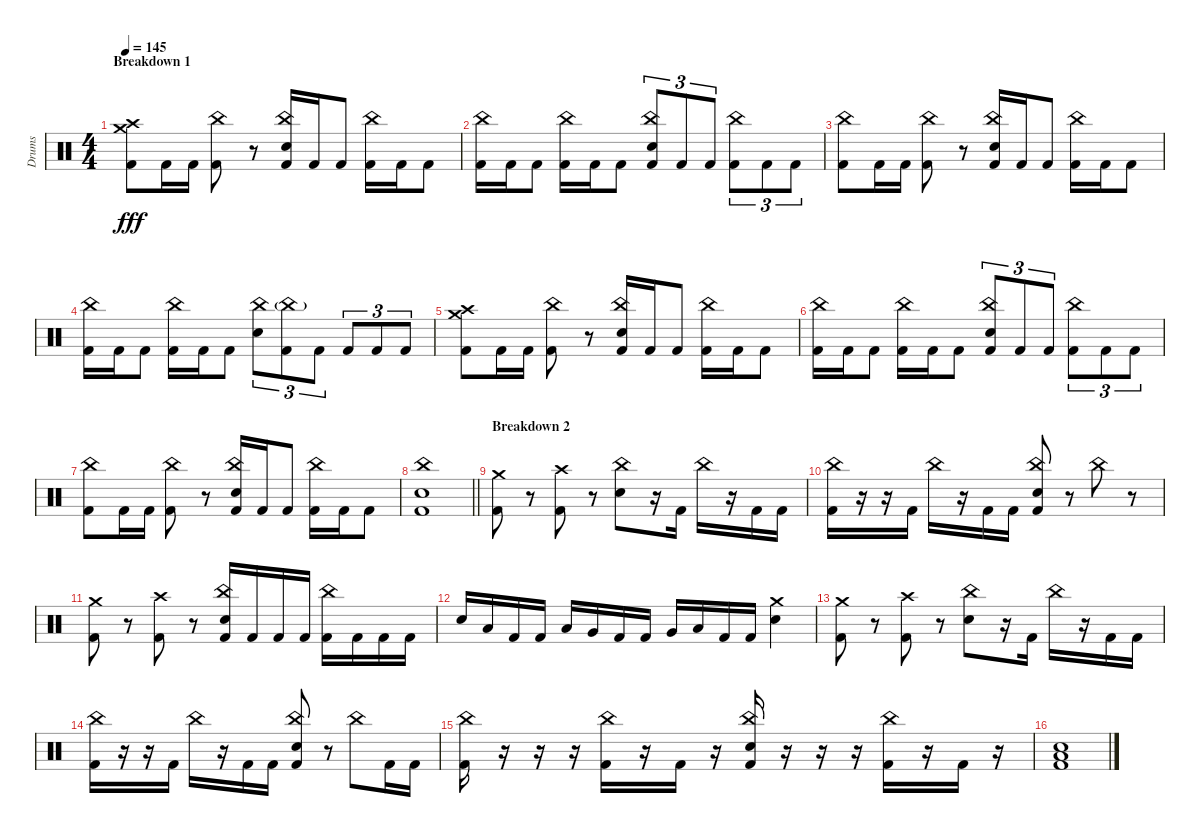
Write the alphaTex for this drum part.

\track ("Drums" "Drums") {instrument percussion}
\staff {score}
\articulation defaults
\ts (4 4)
\section ("" "Breakdown 1")
\tempo 145
\clef neutral
\ks c
("Crash medium (hit)" "Crash high (hit)" "Kick (hit) 2").8{dy fff} "Kick (hit) 2".16 "Kick (hit) 2".16 ("China (hit)" "Kick (hit) 2").8 r.8 ("China (hit)" "Electric Snare (hit)" "Kick (hit) 2").16 "Kick (hit) 2".16 "Kick (hit) 2".8 ("China (hit)" "Kick (hit) 2").16 "Kick (hit) 2".16 "Kick (hit) 2".8 |
("China (hit)" "Kick (hit) 2").16 "Kick (hit) 2".16 "Kick (hit) 2".8 ("China (hit)" "Kick (hit) 2").16 "Kick (hit) 2".16 "Kick (hit) 2".8 ("China (hit)" "Electric Snare (hit)" "Kick (hit) 2").8{tu (3 2)} "Kick (hit) 2".8{tu (3 2)} "Kick (hit) 2".8{tu (3 2)} ("China (hit)" "Kick (hit) 2").8{tu (3 2)} "Kick (hit) 2".8{tu (3 2)} "Kick (hit) 2".8{tu (3 2)} |
("China (hit)" "Kick (hit) 2").8 "Kick (hit) 2".16 "Kick (hit) 2".16 ("China (hit)" "Kick (hit) 2").8 r.8 ("China (hit)" "Electric Snare (hit)" "Kick (hit) 2").16 "Kick (hit) 2".16 "Kick (hit) 2".8 ("China (hit)" "Kick (hit) 2").16 "Kick (hit) 2".16 "Kick (hit) 2".8 |
("China (hit)" "Kick (hit) 2").16 "Kick (hit) 2".16 "Kick (hit) 2".8 ("China (hit)" "Kick (hit) 2").16 "Kick (hit) 2".16 "Kick (hit) 2".8 ("China (hit)" "Electric Snare (hit)").8{tu (3 2)} ("China (hit)"{g} "Kick (hit) 2").8{tu (3 2)} "Kick (hit) 2".8{tu (3 2)} "Kick (hit) 2".8{tu (3 2)} "Kick (hit) 2".8{tu (3 2)} "Kick (hit) 2".8{tu (3 2)} |
("Crash medium (hit)" "Crash high (hit)" "Kick (hit) 2").8 "Kick (hit) 2".16 "Kick (hit) 2".16 ("China (hit)" "Kick (hit) 2").8 r.8 ("China (hit)" "Electric Snare (hit)" "Kick (hit) 2").16 "Kick (hit) 2".16 "Kick (hit) 2".8 ("China (hit)" "Kick (hit) 2").16 "Kick (hit) 2".16 "Kick (hit) 2".8 |
("China (hit)" "Kick (hit) 2").16 "Kick (hit) 2".16 "Kick (hit) 2".8 ("China (hit)" "Kick (hit) 2").16 "Kick (hit) 2".16 "Kick (hit) 2".8 ("China (hit)" "Electric Snare (hit)" "Kick (hit) 2").8{tu (3 2)} "Kick (hit) 2".8{tu (3 2)} "Kick (hit) 2".8{tu (3 2)} ("China (hit)" "Kick (hit) 2").8{tu (3 2)} "Kick (hit) 2".8{tu (3 2)} "Kick (hit) 2".8{tu (3 2)} |
("China (hit)" "Kick (hit) 2").8 "Kick (hit) 2".16 "Kick (hit) 2".16 ("China (hit)" "Kick (hit) 2").8 r.8 ("China (hit)" "Electric Snare (hit)" "Kick (hit) 2").16 "Kick (hit) 2".16 "Kick (hit) 2".8 ("China (hit)" "Kick (hit) 2").16 "Kick (hit) 2".16 "Kick (hit) 2".8 |
\barLineRight lightlight
("China (hit)" "Electric Snare (hit)" "Kick (hit) 2").1 |
\section ("" "Breakdown 2")
("Crash medium (hit)" "Kick (hit) 2").8 r.8 ("Crash high (hit)" "Kick (hit) 2").8 r.8 ("China (hit)" "Electric Snare (hit)").8 r.16 "Kick (hit) 2".16 "China (hit)".16 r.16 "Kick (hit) 2".16 "Kick (hit) 2".16 |
("China (hit)" "Kick (hit) 2").16 r.16 r.16 "Kick (hit) 2".16 "China (hit)".16 r.16 "Kick (hit) 2".16 "Kick (hit) 2".16 ("China (hit)" "Electric Snare (hit)" "Kick (hit) 2").8 r.8 "China (hit)".8 r.8 |
("Crash medium (hit)" "Kick (hit) 2").8 r.8 ("Crash high (hit)" "Kick (hit) 2").8 r.8 ("China (hit)" "Electric Snare (hit)" "Kick (hit) 2").16 "Kick (hit) 2".16 "Kick (hit) 2".16 "Kick (hit) 2".16 ("China (hit)" "Kick (hit) 2").16 "Kick (hit) 2".16 "Kick (hit) 2".16 "Kick (hit) 2".16 |
"Electric Snare (hit)".16 "Low Tom (hit)".16 "Kick (hit) 2".16 "Kick (hit) 2".16 "Low Tom (hit)".16 "Very Low Tom (hit)".16 "Kick (hit) 2".16 "Kick (hit) 2".16 "Very Low Tom (hit)".16 "Low Floor Tom (hit)".16 "Kick (hit) 2".16 "Kick (hit) 2".16 ("Crash medium (hit)" "Electric Snare (hit)").4 |
("Crash medium (hit)" "Kick (hit) 2").8 r.8 ("Crash high (hit)" "Kick (hit) 2").8 r.8 ("China (hit)" "Electric Snare (hit)").8 r.16 "Kick (hit) 2".16 "China (hit)".16 r.16 "Kick (hit) 2".16 "Kick (hit) 2".16 |
("China (hit)" "Kick (hit) 2").16 r.16 r.16 "Kick (hit) 2".16 "China (hit)".16 r.16 "Kick (hit) 2".16 "Kick (hit) 2".16 ("China (hit)" "Electric Snare (hit)" "Kick (hit) 2").8 r.8 "China (hit)".8 "Kick (hit) 2".16 "Kick (hit) 2".16 |
("China (hit)" "Kick (hit) 2").16 r.16 r.16 r.16 ("China (hit)" "Kick (hit) 2").16 r.16 "Kick (hit) 2".16 r.16 ("China (hit)" "Electric Snare (hit)" "Kick (hit) 2").16 r.16 r.16 r.16 ("China (hit)" "Kick (hit) 2").16 r.16 "Kick (hit) 2".16 r.16 |
("Low Floor Tom (hit)" "Electric Snare (hit)" "Kick (hit) 2").1
